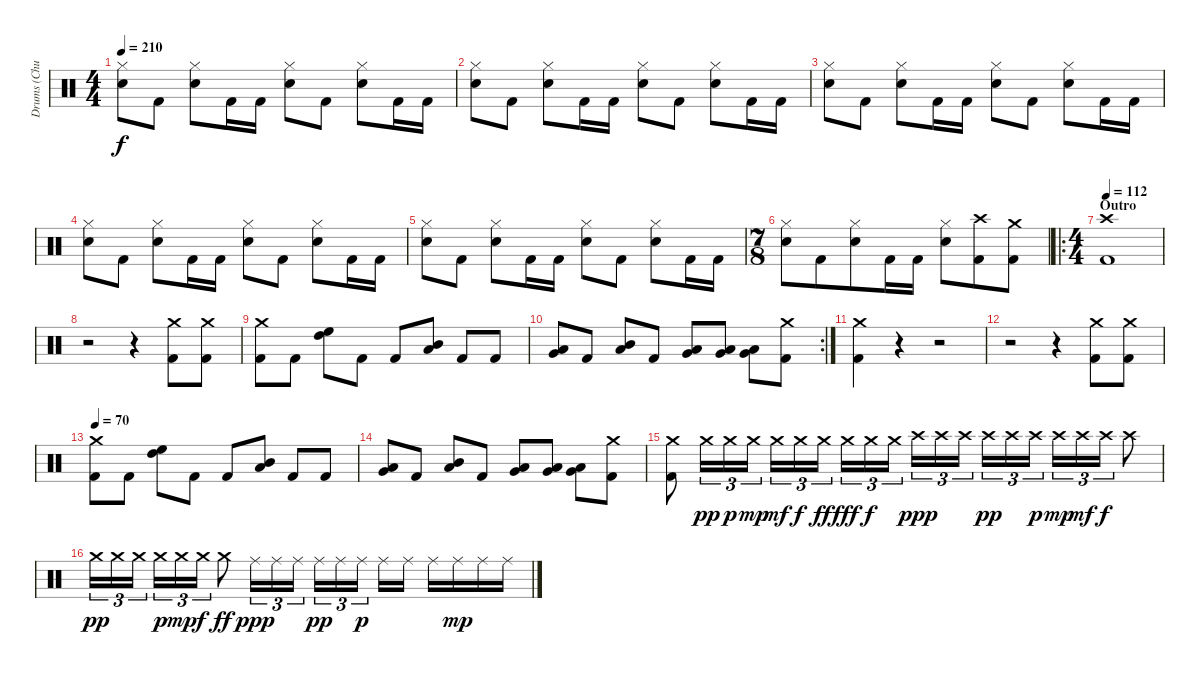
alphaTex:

\track ("Drums (Chuck Behler)" "Drums (Chu") {instrument percussion}
\staff {score}
\articulation defaults
\ts (4 4)
\tempo 210
\clef neutral
\ks c
("Hi-Hat (closed)" "Snare (hit) 2").8{dy f} "Kick (hit) 2".8 ("Hi-Hat (closed)" "Snare (hit) 2").8 "Kick (hit) 2".16 "Kick (hit) 2".16 ("Hi-Hat (closed)" "Snare (hit) 2").8 "Kick (hit) 2".8 ("Hi-Hat (closed)" "Snare (hit) 2").8 "Kick (hit) 2".16 "Kick (hit) 2".16 |
("Hi-Hat (closed)" "Snare (hit) 2").8 "Kick (hit) 2".8 ("Hi-Hat (closed)" "Snare (hit) 2").8 "Kick (hit) 2".16 "Kick (hit) 2".16 ("Hi-Hat (closed)" "Snare (hit) 2").8 "Kick (hit) 2".8 ("Hi-Hat (closed)" "Snare (hit) 2").8 "Kick (hit) 2".16 "Kick (hit) 2".16 |
("Hi-Hat (closed)" "Snare (hit) 2").8 "Kick (hit) 2".8 ("Hi-Hat (closed)" "Snare (hit) 2").8 "Kick (hit) 2".16 "Kick (hit) 2".16 ("Hi-Hat (closed)" "Snare (hit) 2").8 "Kick (hit) 2".8 ("Hi-Hat (closed)" "Snare (hit) 2").8 "Kick (hit) 2".16 "Kick (hit) 2".16 |
("Hi-Hat (closed)" "Snare (hit) 2").8 "Kick (hit) 2".8 ("Hi-Hat (closed)" "Snare (hit) 2").8 "Kick (hit) 2".16 "Kick (hit) 2".16 ("Hi-Hat (closed)" "Snare (hit) 2").8 "Kick (hit) 2".8 ("Hi-Hat (closed)" "Snare (hit) 2").8 "Kick (hit) 2".16 "Kick (hit) 2".16 |
("Hi-Hat (closed)" "Snare (hit) 2").8 "Kick (hit) 2".8 ("Hi-Hat (closed)" "Snare (hit) 2").8 "Kick (hit) 2".16 "Kick (hit) 2".16 ("Hi-Hat (closed)" "Snare (hit) 2").8 "Kick (hit) 2".8 ("Hi-Hat (closed)" "Snare (hit) 2").8 "Kick (hit) 2".16 "Kick (hit) 2".16 |
\ts (7 8)
("Hi-Hat (closed)" "Snare (hit) 2").8 "Kick (hit) 2".8 ("Hi-Hat (closed)" "Snare (hit) 2").8 "Kick (hit) 2".16 "Kick (hit) 2".16 ("Hi-Hat (closed)" "Snare (hit) 2").8 ("Crash high (hit)" "Kick (hit) 2").8 ("Crash medium (hit)" "Kick (hit) 2").8 |
\ro
\ts (4 4)
\section ("" "Outro")
\tempo 112
("Crash high (hit)" "Kick (hit) 2").1 |
r.2 r.4 ("Crash medium (hit)" "Kick (hit) 2").8 ("Crash medium (hit)" "Kick (hit) 2").8 |
("Crash medium (hit)" "Kick (hit) 2").8 "Kick (hit) 2".8 ("High Floor Tom (hit)" "High Tom (hit)").8 "Kick (hit) 2".8 "Kick (hit) 2".8 ("Mid Tom (hit)" "Low Tom (hit)").8 "Kick (hit) 2".8 "Kick (hit) 2".8 |
\rc 2
("Very Low Tom (hit)" "Low Floor Tom (hit)").8 "Kick (hit) 2".8 ("Mid Tom (hit)" "Low Tom (hit)").8 "Kick (hit) 2".8 ("Low Tom (hit)" "Very Low Tom (hit)").8 ("Low Tom (hit)" "Very Low Tom (hit)").8 ("Low Tom (hit)" "Very Low Tom (hit)").8 ("Crash medium (hit)" "Kick (hit) 2").8 |
("Crash medium (hit)" "Kick (hit) 2").4 r.4 r.2 |
r.2 r.4 ("Crash medium (hit)" "Kick (hit) 2").8 ("Crash medium (hit)" "Kick (hit) 2").8 |
\tempo 70
("Crash medium (hit)" "Kick (hit) 2").8 "Kick (hit) 2".8 ("High Floor Tom (hit)" "High Tom (hit)").8 "Kick (hit) 2".8 "Kick (hit) 2".8 ("Mid Tom (hit)" "Low Tom (hit)").8 "Kick (hit) 2".8 "Kick (hit) 2".8 |
("Very Low Tom (hit)" "Low Floor Tom (hit)").8 "Kick (hit) 2".8 ("Mid Tom (hit)" "Low Tom (hit)").8 "Kick (hit) 2".8 ("Low Tom (hit)" "Very Low Tom (hit)").8 ("Low Tom (hit)" "Very Low Tom (hit)").8 ("Low Tom (hit)" "Very Low Tom (hit)").8 ("Crash medium (hit)" "Kick (hit) 2").8 |
("Crash medium (hit)" "Kick (hit) 2").8 "Crash medium (hit)".16{tu (3 2) dy pp} "Crash medium (hit)".16{tu (3 2) dy p} "Crash medium (hit)".16{tu (3 2) dy mp} "Crash medium (hit)".16{tu (3 2) dy mf} "Crash medium (hit)".16{tu (3 2) dy f} "Crash medium (hit)".16{tu (3 2) dy ff} "Crash medium (hit)".16{tu (3 2) dy fff} "Crash medium (hit)".16{tu (3 2) dy f} "Crash medium (hit)".16{tu (3 2)} "Crash high (hit)".16{tu (3 2) dy ppp} "Crash high (hit)".16{tu (3 2)} "Crash high (hit)".16{tu (3 2)} "Crash high (hit)".16{tu (3 2) dy pp} "Crash high (hit)".16{tu (3 2)} "Crash high (hit)".16{tu (3 2) dy p} "Crash high (hit)".16{tu (3 2) dy mp} "Crash high (hit)".16{tu (3 2) dy mf} "Crash high (hit)".16{tu (3 2) dy f} "Crash high (hit)".8 |
"Crash medium (hit)".16{tu (3 2) dy pp} "Crash medium (hit)".16{tu (3 2)} "Crash medium (hit)".16{tu (3 2)} "Crash medium (hit)".16{tu (3 2) dy p} "Crash medium (hit)".16{tu (3 2) dy mp} "Crash medium (hit)".16{tu (3 2) dy f} "Crash medium (hit)".8{dy ff} "Ride (middle)".16{tu (3 2) dy ppp} "Ride (middle)".16{tu (3 2)} "Ride (middle)".16{tu (3 2)} "Ride (middle)".16{tu (3 2) dy pp} "Ride (middle)".16{tu (3 2)} "Ride (middle)".16{tu (3 2) dy p} "Ride (middle)".16 "Ride (middle)".16 "Ride (middle)".16 "Ride (middle)".16{dy mp} "Ride (middle)".16 "Ride (middle)".16
